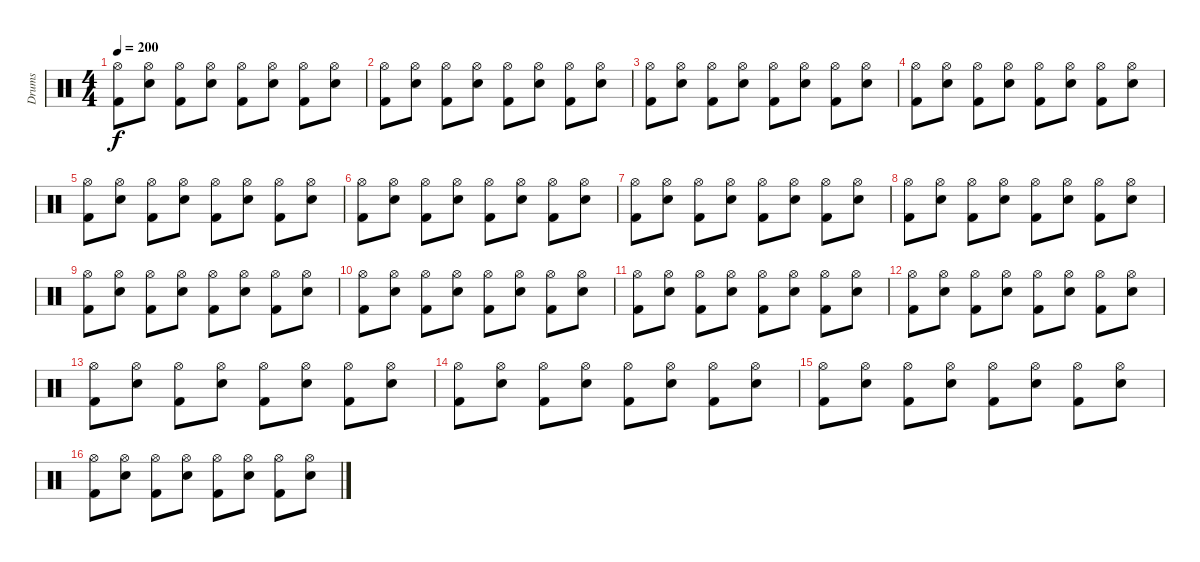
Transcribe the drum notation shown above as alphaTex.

\track ("Drums" "Drums") {instrument percussion}
\staff {score}
\articulation defaults
\ts (4 4)
\tempo 200
\clef neutral
\ks c
("Hi-Hat (open)" "Kick (hit) 2").8{dy f} ("Hi-Hat (open)" "Electric Snare (hit)").8 ("Hi-Hat (open)" "Kick (hit) 2").8 ("Hi-Hat (open)" "Electric Snare (hit)").8 ("Hi-Hat (open)" "Kick (hit) 2").8 ("Hi-Hat (open)" "Electric Snare (hit)").8 ("Hi-Hat (open)" "Kick (hit) 2").8 ("Hi-Hat (open)" "Electric Snare (hit)").8 |
("Hi-Hat (open)" "Kick (hit) 2").8 ("Hi-Hat (open)" "Electric Snare (hit)").8 ("Hi-Hat (open)" "Kick (hit) 2").8 ("Hi-Hat (open)" "Electric Snare (hit)").8 ("Hi-Hat (open)" "Kick (hit) 2").8 ("Hi-Hat (open)" "Electric Snare (hit)").8 ("Hi-Hat (open)" "Kick (hit) 2").8 ("Hi-Hat (open)" "Electric Snare (hit)").8 |
("Hi-Hat (open)" "Kick (hit) 2").8 ("Hi-Hat (open)" "Electric Snare (hit)").8 ("Hi-Hat (open)" "Kick (hit) 2").8 ("Hi-Hat (open)" "Electric Snare (hit)").8 ("Hi-Hat (open)" "Kick (hit) 2").8 ("Hi-Hat (open)" "Electric Snare (hit)").8 ("Hi-Hat (open)" "Kick (hit) 2").8 ("Hi-Hat (open)" "Electric Snare (hit)").8 |
("Hi-Hat (open)" "Kick (hit) 2").8 ("Hi-Hat (open)" "Electric Snare (hit)").8 ("Hi-Hat (open)" "Kick (hit) 2").8 ("Hi-Hat (open)" "Electric Snare (hit)").8 ("Hi-Hat (open)" "Kick (hit) 2").8 ("Hi-Hat (open)" "Electric Snare (hit)").8 ("Hi-Hat (open)" "Kick (hit) 2").8 ("Hi-Hat (open)" "Electric Snare (hit)").8 |
("Hi-Hat (open)" "Kick (hit) 2").8 ("Hi-Hat (open)" "Electric Snare (hit)").8 ("Hi-Hat (open)" "Kick (hit) 2").8 ("Hi-Hat (open)" "Electric Snare (hit)").8 ("Hi-Hat (open)" "Kick (hit) 2").8 ("Hi-Hat (open)" "Electric Snare (hit)").8 ("Hi-Hat (open)" "Kick (hit) 2").8 ("Hi-Hat (open)" "Electric Snare (hit)").8 |
("Hi-Hat (open)" "Kick (hit) 2").8 ("Hi-Hat (open)" "Electric Snare (hit)").8 ("Hi-Hat (open)" "Kick (hit) 2").8 ("Hi-Hat (open)" "Electric Snare (hit)").8 ("Hi-Hat (open)" "Kick (hit) 2").8 ("Hi-Hat (open)" "Electric Snare (hit)").8 ("Hi-Hat (open)" "Kick (hit) 2").8 ("Hi-Hat (open)" "Electric Snare (hit)").8 |
("Hi-Hat (open)" "Kick (hit) 2").8 ("Hi-Hat (open)" "Electric Snare (hit)").8 ("Hi-Hat (open)" "Kick (hit) 2").8 ("Hi-Hat (open)" "Electric Snare (hit)").8 ("Hi-Hat (open)" "Kick (hit) 2").8 ("Hi-Hat (open)" "Electric Snare (hit)").8 ("Hi-Hat (open)" "Kick (hit) 2").8 ("Hi-Hat (open)" "Electric Snare (hit)").8 |
("Hi-Hat (open)" "Kick (hit) 2").8 ("Hi-Hat (open)" "Electric Snare (hit)").8 ("Hi-Hat (open)" "Kick (hit) 2").8 ("Hi-Hat (open)" "Electric Snare (hit)").8 ("Hi-Hat (open)" "Kick (hit) 2").8 ("Hi-Hat (open)" "Electric Snare (hit)").8 ("Hi-Hat (open)" "Kick (hit) 2").8 ("Hi-Hat (open)" "Electric Snare (hit)").8 |
("Hi-Hat (open)" "Kick (hit) 2").8 ("Hi-Hat (open)" "Electric Snare (hit)").8 ("Hi-Hat (open)" "Kick (hit) 2").8 ("Hi-Hat (open)" "Electric Snare (hit)").8 ("Hi-Hat (open)" "Kick (hit) 2").8 ("Hi-Hat (open)" "Electric Snare (hit)").8 ("Hi-Hat (open)" "Kick (hit) 2").8 ("Hi-Hat (open)" "Electric Snare (hit)").8 |
("Hi-Hat (open)" "Kick (hit) 2").8 ("Hi-Hat (open)" "Electric Snare (hit)").8 ("Hi-Hat (open)" "Kick (hit) 2").8 ("Hi-Hat (open)" "Electric Snare (hit)").8 ("Hi-Hat (open)" "Kick (hit) 2").8 ("Hi-Hat (open)" "Electric Snare (hit)").8 ("Hi-Hat (open)" "Kick (hit) 2").8 ("Hi-Hat (open)" "Electric Snare (hit)").8 |
("Hi-Hat (open)" "Kick (hit) 2").8 ("Hi-Hat (open)" "Electric Snare (hit)").8 ("Hi-Hat (open)" "Kick (hit) 2").8 ("Hi-Hat (open)" "Electric Snare (hit)").8 ("Hi-Hat (open)" "Kick (hit) 2").8 ("Hi-Hat (open)" "Electric Snare (hit)").8 ("Hi-Hat (open)" "Kick (hit) 2").8 ("Hi-Hat (open)" "Electric Snare (hit)").8 |
("Hi-Hat (open)" "Kick (hit) 2").8 ("Hi-Hat (open)" "Electric Snare (hit)").8 ("Hi-Hat (open)" "Kick (hit) 2").8 ("Hi-Hat (open)" "Electric Snare (hit)").8 ("Hi-Hat (open)" "Kick (hit) 2").8 ("Hi-Hat (open)" "Electric Snare (hit)").8 ("Hi-Hat (open)" "Kick (hit) 2").8 ("Hi-Hat (open)" "Electric Snare (hit)").8 |
("Hi-Hat (open)" "Kick (hit) 2").8 ("Hi-Hat (open)" "Electric Snare (hit)").8 ("Hi-Hat (open)" "Kick (hit) 2").8 ("Hi-Hat (open)" "Electric Snare (hit)").8 ("Hi-Hat (open)" "Kick (hit) 2").8 ("Hi-Hat (open)" "Electric Snare (hit)").8 ("Hi-Hat (open)" "Kick (hit) 2").8 ("Hi-Hat (open)" "Electric Snare (hit)").8 |
("Hi-Hat (open)" "Kick (hit) 2").8 ("Hi-Hat (open)" "Electric Snare (hit)").8 ("Hi-Hat (open)" "Kick (hit) 2").8 ("Hi-Hat (open)" "Electric Snare (hit)").8 ("Hi-Hat (open)" "Kick (hit) 2").8 ("Hi-Hat (open)" "Electric Snare (hit)").8 ("Hi-Hat (open)" "Kick (hit) 2").8 ("Hi-Hat (open)" "Electric Snare (hit)").8 |
("Hi-Hat (open)" "Kick (hit) 2").8 ("Hi-Hat (open)" "Electric Snare (hit)").8 ("Hi-Hat (open)" "Kick (hit) 2").8 ("Hi-Hat (open)" "Electric Snare (hit)").8 ("Hi-Hat (open)" "Kick (hit) 2").8 ("Hi-Hat (open)" "Electric Snare (hit)").8 ("Hi-Hat (open)" "Kick (hit) 2").8 ("Hi-Hat (open)" "Electric Snare (hit)").8 |
("Hi-Hat (open)" "Kick (hit) 2").8 ("Hi-Hat (open)" "Electric Snare (hit)").8 ("Hi-Hat (open)" "Kick (hit) 2").8 ("Hi-Hat (open)" "Electric Snare (hit)").8 ("Hi-Hat (open)" "Kick (hit) 2").8 ("Hi-Hat (open)" "Electric Snare (hit)").8 ("Hi-Hat (open)" "Kick (hit) 2").8 ("Hi-Hat (open)" "Electric Snare (hit)").8
